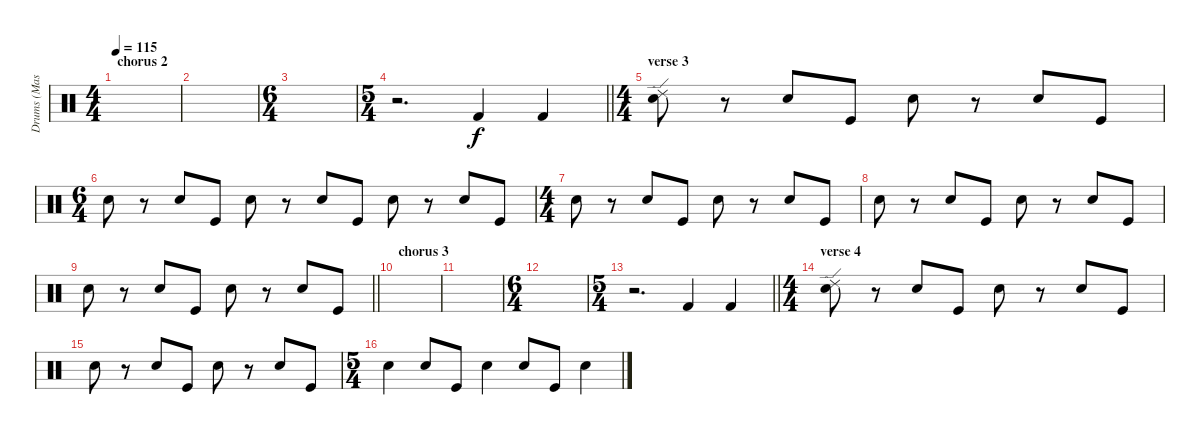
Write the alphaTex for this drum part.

\track ("Drums (Mason)" "Drums (Mas") {instrument percussion}
\staff {score}
\articulation defaults
\ts (4 4)
\section ("" "chorus 2")
\tempo 115
\clef neutral
\ks c
|
|
\ts (6 4)
|
\ts (5 4)
\barLineRight lightlight
r.2{d} "Kick (hit) 2".4 "Kick (hit) 2".4 |
\ts (4 4)
\section ("" "verse 3")
("Ride (edge) 2" "Snare (hit) 2").8 r.8 "Snare (hit) 2".8 "Kick (hit)".8 "Snare (hit) 2".8 r.8 "Snare (hit) 2".8 "Kick (hit)".8 |
\ts (6 4)
"Snare (hit) 2".8 r.8 "Snare (hit) 2".8 "Kick (hit)".8 "Snare (hit) 2".8 r.8 "Snare (hit) 2".8 "Kick (hit)".8 "Snare (hit) 2".8 r.8 "Snare (hit) 2".8 "Kick (hit)".8 |
\ts (4 4)
"Snare (hit) 2".8 r.8 "Snare (hit) 2".8 "Kick (hit)".8 "Snare (hit) 2".8 r.8 "Snare (hit) 2".8 "Kick (hit)".8 |
"Snare (hit) 2".8 r.8 "Snare (hit) 2".8 "Kick (hit)".8 "Snare (hit) 2".8 r.8 "Snare (hit) 2".8 "Kick (hit)".8 |
\barLineRight lightlight "Snare (hit) 2".8
r.8 "Snare (hit) 2".8 "Kick (hit)".8 "Snare (hit) 2".8 r.8 "Snare (hit) 2".8 "Kick (hit)".8 |
\section ("" "chorus 3")
|
|
\ts (6 4)
|
\ts (5 4)
\barLineRight lightlight
r.2{d} "Kick (hit) 2".4 "Kick (hit) 2".4 |
\ts (4 4)
\section ("" "verse 4")
("Ride (edge) 2" "Snare (hit) 2").8 r.8 "Snare (hit) 2".8 "Kick (hit)".8 "Snare (hit) 2".8 r.8 "Snare (hit) 2".8 "Kick (hit)".8 |
"Snare (hit) 2".8 r.8 "Snare (hit) 2".8 "Kick (hit)".8 "Snare (hit) 2".8 r.8 "Snare (hit) 2".8 "Kick (hit)".8 |
\ts (5 4)
"Snare (hit) 2".4 "Snare (hit) 2".8 "Kick (hit)".8 "Snare (hit) 2".4 "Snare (hit) 2".8 "Kick (hit)".8 "Snare (hit) 2".4
